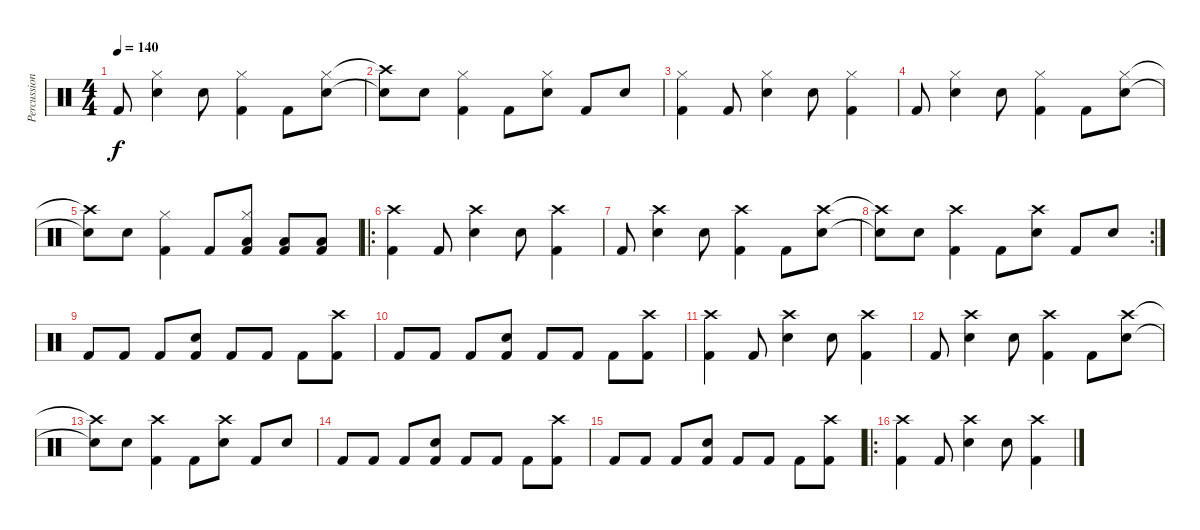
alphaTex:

\track ("Percussion" "Percussion") {instrument percussion}
\staff {score}
\articulation defaults
\ts (4 4)
\tempo 140
\clef neutral
\ks c "Kick (hit) 2".8{dy f}
("Hi-Hat (closed)" "Electric Snare (hit)").4 "Electric Snare (hit)".8 ("Hi-Hat (closed)" "Kick (hit) 2").4 "Kick (hit) 2".8 ("Hi-Hat (closed)" "Electric Snare (hit)").8 |
("Crash high (hit)"{t} "Snare (hit)"{t}).8 "Electric Snare (hit)".8 ("Hi-Hat (closed)" "Kick (hit) 2").4 "Kick (hit) 2".8 ("Hi-Hat (closed)" "Electric Snare (hit)").8 "Kick (hit) 2".8 "Electric Snare (hit)".8 |
("Hi-Hat (closed)" "Kick (hit) 2").4 "Kick (hit) 2".8 ("Hi-Hat (closed)" "Electric Snare (hit)").4 "Electric Snare (hit)".8 ("Hi-Hat (closed)" "Kick (hit) 2").4 |
"Kick (hit) 2".8 ("Hi-Hat (closed)" "Electric Snare (hit)").4 "Electric Snare (hit)".8 ("Hi-Hat (closed)" "Kick (hit) 2").4 "Kick (hit) 2".8 ("Hi-Hat (closed)" "Electric Snare (hit)").8 |
("Crash high (hit)"{t} "Snare (hit)"{t}).8 "Electric Snare (hit)".8 ("Hi-Hat (closed)" "Kick (hit) 2").4 "Kick (hit) 2".8 ("Hi-Hat (closed)" "Low Floor Tom (hit)" "Kick (hit) 2").8 ("Low Floor Tom (hit)" "Kick (hit) 2").8 ("Low Floor Tom (hit)" "Kick (hit) 2").8 |
\ro
("Crash high (hit)" "Kick (hit) 2").4 "Kick (hit) 2".8 ("Crash high (hit)" "Electric Snare (hit)").4 "Electric Snare (hit)".8 ("Crash high (hit)" "Kick (hit) 2").4 |
"Kick (hit) 2".8 ("Crash high (hit)" "Electric Snare (hit)").4 "Electric Snare (hit)".8 ("Crash high (hit)" "Kick (hit) 2").4 "Kick (hit) 2".8 ("Crash high (hit)" "Electric Snare (hit)").8 |
\rc 2
("Crash high (hit)"{t} "Snare (hit)"{t}).8 "Electric Snare (hit)".8 ("Crash high (hit)" "Kick (hit) 2").4 "Kick (hit) 2".8 ("Crash high (hit)" "Electric Snare (hit)").8 "Kick (hit) 2".8 "Electric Snare (hit)".8 |
"Kick (hit) 2".8 "Kick (hit) 2".8 "Kick (hit) 2".8 ("Electric Snare (hit)" "Kick (hit) 2").8 "Kick (hit) 2".8 "Kick (hit) 2".8 "Kick (hit) 2".8 ("Crash high (hit)" "Kick (hit) 2").8 |
"Kick (hit) 2".8 "Kick (hit) 2".8 "Kick (hit) 2".8 ("Electric Snare (hit)" "Kick (hit) 2").8 "Kick (hit) 2".8 "Kick (hit) 2".8 "Kick (hit) 2".8 ("Crash high (hit)" "Kick (hit) 2").8 |
("Crash high (hit)" "Kick (hit) 2").4 "Kick (hit) 2".8 ("Crash high (hit)" "Electric Snare (hit)").4 "Electric Snare (hit)".8 ("Crash high (hit)" "Kick (hit) 2").4 |
"Kick (hit) 2".8 ("Crash high (hit)" "Electric Snare (hit)").4 "Electric Snare (hit)".8 ("Crash high (hit)" "Kick (hit) 2").4 "Kick (hit) 2".8 ("Crash high (hit)" "Electric Snare (hit)").8 |
("Crash high (hit)"{t} "Snare (hit)"{t}).8 "Electric Snare (hit)".8 ("Crash high (hit)" "Kick (hit) 2").4 "Kick (hit) 2".8 ("Crash high (hit)" "Electric Snare (hit)").8 "Kick (hit) 2".8 "Electric Snare (hit)".8 |
"Kick (hit) 2".8 "Kick (hit) 2".8 "Kick (hit) 2".8 ("Electric Snare (hit)" "Kick (hit) 2").8 "Kick (hit) 2".8 "Kick (hit) 2".8 "Kick (hit) 2".8 ("Crash high (hit)" "Kick (hit) 2").8 |
"Kick (hit) 2".8 "Kick (hit) 2".8 "Kick (hit) 2".8 ("Electric Snare (hit)" "Kick (hit) 2").8 "Kick (hit) 2".8 "Kick (hit) 2".8 "Kick (hit) 2".8 ("Crash high (hit)" "Kick (hit) 2").8 |
\ro
("Crash high (hit)" "Kick (hit) 2").4 "Kick (hit) 2".8 ("Crash high (hit)" "Electric Snare (hit)").4 "Electric Snare (hit)".8 ("Crash high (hit)" "Kick (hit) 2").4
